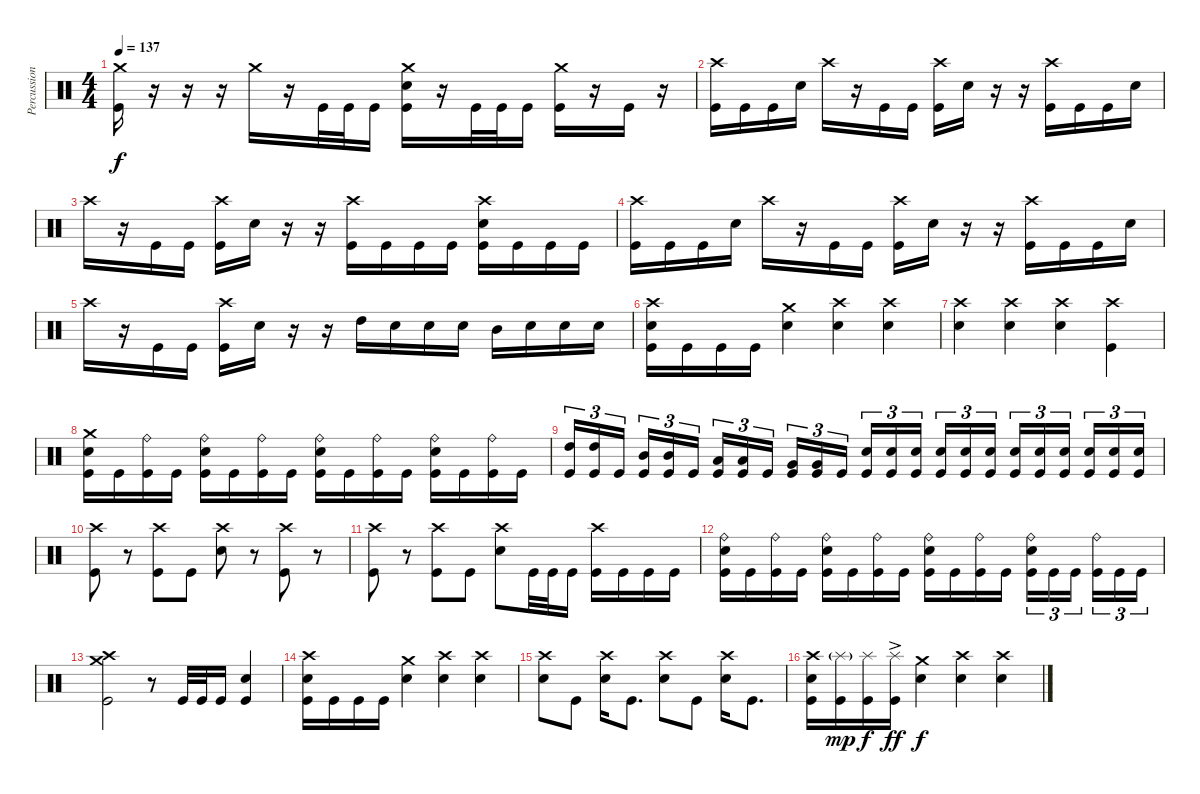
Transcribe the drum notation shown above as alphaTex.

\track ("Percussion" "Percussion") {instrument percussion}
\staff {score}
\articulation defaults
\ts (4 4)
\tempo 137
\clef neutral
\ks c
("Crash medium (hit)" "Kick (hit)").16{dy f} r.16 r.16 r.16 "Crash medium (hit)".16 r.16 "Kick (hit)".32 "Kick (hit)".32 "Kick (hit)".16 ("Crash medium (hit)" "Snare (hit) 2" "Kick (hit)").16 r.16 "Kick (hit)".32 "Kick (hit)".32 "Kick (hit)".16 ("Crash medium (hit)" "Kick (hit)").16 r.16 "Kick (hit)".16 r.16 |
("Crash high (hit)" "Kick (hit)").16 "Kick (hit)".16 "Kick (hit)".16 "Snare (hit) 2".16 "Crash high (hit)".16 r.16 "Kick (hit)".16 "Kick (hit)".16 ("Crash high (hit)" "Kick (hit)").16 "Snare (hit) 2".16 r.16 r.16 ("Crash high (hit)" "Kick (hit)").16 "Kick (hit)".16 "Kick (hit)".16 "Snare (hit) 2".16 |
"Crash high (hit)".16 r.16 "Kick (hit)".16 "Kick (hit)".16 ("Crash high (hit)" "Kick (hit)").16 "Snare (hit) 2".16 r.16 r.16 ("Crash high (hit)" "Kick (hit)").16 "Kick (hit)".16 "Kick (hit)".16 "Kick (hit)".16 ("Crash high (hit)" "Snare (hit) 2" "Kick (hit)").16 "Kick (hit)".16 "Kick (hit)".16 "Kick (hit)".16 |
("Crash high (hit)" "Kick (hit)").16 "Kick (hit)".16 "Kick (hit)".16 "Snare (hit) 2".16 "Crash high (hit)".16 r.16 "Kick (hit)".16 "Kick (hit)".16 ("Crash high (hit)" "Kick (hit)").16 "Snare (hit) 2".16 r.16 r.16 ("Crash high (hit)" "Kick (hit)").16 "Kick (hit)".16 "Kick (hit)".16 "Snare (hit) 2".16 |
"Crash high (hit)".16 r.16 "Kick (hit)".16 "Kick (hit)".16 ("Crash high (hit)" "Kick (hit)").16 "Snare (hit) 2".16 r.16 r.16 "High Tom (hit)".16 "Snare (hit) 2".16 "Snare (hit) 2".16 "Snare (hit) 2".16 "Mid Tom (hit)".16 "Snare (hit) 2".16 "Snare (hit) 2".16 "Snare (hit) 2".16 |
("Crash high (hit)" "Snare (hit) 2" "Kick (hit)").16 "Kick (hit)".16 "Kick (hit)".16 "Kick (hit)".16 ("Crash medium (hit)" "Snare (hit) 2").4 ("Crash high (hit)" "Snare (hit) 2").4 ("Crash high (hit)" "Snare (hit) 2").4 |
("Crash high (hit)" "Snare (hit) 2").4 ("Crash high (hit)" "Snare (hit) 2").4 ("Crash high (hit)" "Snare (hit) 2").4 ("Crash high (hit)" "Kick (hit)").4 |
("Crash medium (hit)" "Snare (hit) 2" "Kick (hit)").16 "Kick (hit)".16 ("Ride (bell)" "Kick (hit)").16 "Kick (hit)".16 ("Ride (bell)" "Snare (hit) 2" "Kick (hit)").16 "Kick (hit)".16 ("Ride (bell)" "Kick (hit)").16 "Kick (hit)".16 ("Ride (bell)" "Snare (hit) 2" "Kick (hit)").16 "Kick (hit)".16 ("Ride (bell)" "Kick (hit)").16 "Kick (hit)".16 ("Ride (bell)" "Snare (hit) 2" "Kick (hit)").16 "Kick (hit)".16 ("Ride (bell)" "Kick (hit)").16 "Kick (hit)".16 |
("High Tom (hit)" "Kick (hit)").16{tu (3 2)} ("High Tom (hit)" "Kick (hit)").16{tu (3 2)} "Kick (hit)".16{tu (3 2) beam splitsecondary} ("Mid Tom (hit)" "Kick (hit)").16{tu (3 2)} ("Mid Tom (hit)" "Kick (hit)").16{tu (3 2)} "Kick (hit)".16{tu (3 2)} ("Low Tom (hit)" "Kick (hit)").16{tu (3 2)} ("Low Tom (hit)" "Kick (hit)").16{tu (3 2)} "Kick (hit)".16{tu (3 2) beam splitsecondary} ("Very Low Tom (hit)" "Kick (hit)").16{tu (3 2)} ("Very Low Tom (hit)" "Kick (hit)").16{tu (3 2)} "Kick (hit)".16{tu (3 2)} ("Snare (hit) 2" "Kick (hit)").16{tu (3 2)} ("Snare (hit) 2" "Kick (hit)").16{tu (3 2)} ("Snare (hit) 2" "Kick (hit)").16{tu (3 2) beam splitsecondary} ("Snare (hit) 2" "Kick (hit)").16{tu (3 2)} ("Snare (hit) 2" "Kick (hit)").16{tu (3 2)} ("Snare (hit) 2" "Kick (hit)").16{tu (3 2)} ("Snare (hit) 2" "Kick (hit)").16{tu (3 2)} ("Snare (hit) 2" "Kick (hit)").16{tu (3 2)} ("Snare (hit) 2" "Kick (hit)").16{tu (3 2) beam splitsecondary} ("Snare (hit) 2" "Kick (hit)").16{tu (3 2)} ("Snare (hit) 2" "Kick (hit)").16{tu (3 2)} ("Snare (hit) 2" "Kick (hit)").16{tu (3 2)} |
("Crash high (hit)" "Kick (hit)").8 r.8 ("Crash high (hit)" "Kick (hit)").8 "Kick (hit)".8 ("Crash high (hit)" "Snare (hit) 2").8 r.8 ("Crash high (hit)" "Kick (hit)").8 r.8 |
("Crash high (hit)" "Kick (hit)").8 r.8 ("Crash high (hit)" "Kick (hit)").8 "Kick (hit)".8 ("Crash high (hit)" "Snare (hit) 2").8 "Kick (hit)".32 "Kick (hit)".32 "Kick (hit)".16 ("Crash high (hit)" "Kick (hit)").16 "Kick (hit)".16 "Kick (hit)".16 "Kick (hit)".16 |
("Ride (bell)" "Snare (hit) 2" "Kick (hit)").16 "Kick (hit)".16 ("Ride (bell)" "Kick (hit)").16 "Kick (hit)".16 ("Ride (bell)" "Snare (hit) 2" "Kick (hit)").16 "Kick (hit)".16 ("Ride (bell)" "Kick (hit)").16 "Kick (hit)".16 ("Ride (bell)" "Snare (hit) 2" "Kick (hit)").16 "Kick (hit)".16 ("Ride (bell)" "Kick (hit)").16 "Kick (hit)".16 ("Ride (bell)" "Snare (hit) 2" "Kick (hit)").16{tu (3 2)} "Kick (hit)".16{tu (3 2)} "Kick (hit)".16{tu (3 2) beam splitsecondary} ("Ride (bell)" "Kick (hit)").16{tu (3 2)} "Kick (hit)".16{tu (3 2)} "Kick (hit)".16{tu (3 2)} |
("Crash medium (hit)" "Crash high (hit)" "Kick (hit)").2 r.8 "Kick (hit)".32 "Kick (hit)".32 "Kick (hit)".16 ("Snare (hit) 2" "Kick (hit)").4 |
("Crash high (hit)" "Snare (hit) 2" "Kick (hit)").16 "Kick (hit)".16 "Kick (hit)".16 "Kick (hit)".16 ("Crash medium (hit)" "Snare (hit) 2").4 ("Crash high (hit)" "Snare (hit) 2").4 ("Crash high (hit)" "Snare (hit) 2").4 |
("Crash high (hit)" "Snare (hit) 2").8 "Kick (hit)".8 ("Crash high (hit)" "Snare (hit) 2").16 "Kick (hit)".8{d} ("Crash high (hit)" "Snare (hit) 2").8 "Kick (hit)".8 ("Crash high (hit)" "Snare (hit) 2").16 "Kick (hit)".8{d} |
("Crash high (hit)" "Snare (hit) 2" "Kick (hit)").16 ("Splash (hit)"{g} "Kick (hit)").16{dy mp} ("Splash (hit)" "Kick (hit)").16{dy f} ("Splash (hit)"{ac} "Kick (hit)").16{dy ff} ("Crash medium (hit)" "Snare (hit) 2").4{dy f} ("Crash high (hit)" "Snare (hit) 2").4 ("Crash high (hit)" "Snare (hit) 2").4
